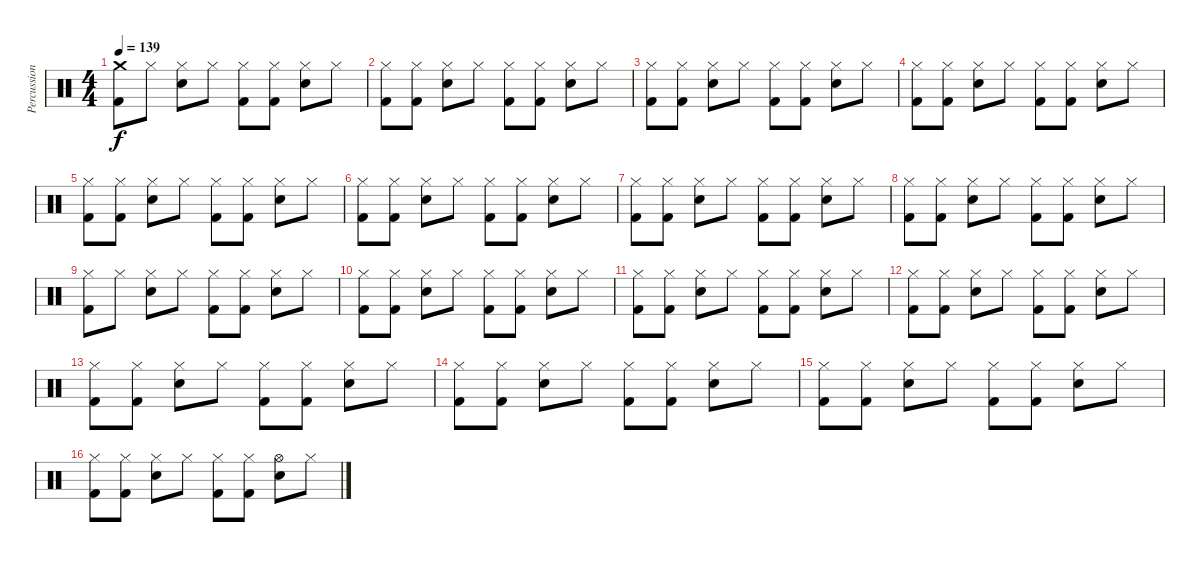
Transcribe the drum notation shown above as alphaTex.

\track ("Percussion" "Percussion") {instrument percussion}
\staff {score}
\articulation defaults
\ts (4 4)
\tempo 139
\clef neutral
\ks c
("Crash medium (hit)" "Kick (hit) 2").8{dy f} "Hi-Hat (closed)".8 ("Hi-Hat (closed)" "Metronome (bell)").8 "Hi-Hat (closed)".8 ("Hi-Hat (closed)" "Kick (hit) 2").8 ("Hi-Hat (closed)" "Kick (hit) 2").8 ("Hi-Hat (closed)" "Metronome (bell)").8 "Hi-Hat (closed)".8 |
("Hi-Hat (closed)" "Kick (hit) 2").8 ("Hi-Hat (closed)" "Kick (hit) 2").8 ("Hi-Hat (closed)" "Metronome (bell)").8 "Hi-Hat (closed)".8 ("Hi-Hat (closed)" "Kick (hit) 2").8 ("Hi-Hat (closed)" "Kick (hit) 2").8 ("Hi-Hat (closed)" "Metronome (bell)").8 "Hi-Hat (closed)".8 |
("Hi-Hat (closed)" "Kick (hit) 2").8 ("Hi-Hat (closed)" "Kick (hit) 2").8 ("Hi-Hat (closed)" "Metronome (bell)").8 "Hi-Hat (closed)".8 ("Hi-Hat (closed)" "Kick (hit) 2").8 ("Hi-Hat (closed)" "Kick (hit) 2").8 ("Hi-Hat (closed)" "Metronome (bell)").8 "Hi-Hat (closed)".8 |
("Hi-Hat (closed)" "Kick (hit) 2").8 ("Hi-Hat (closed)" "Kick (hit) 2").8 ("Hi-Hat (closed)" "Metronome (bell)").8 "Hi-Hat (closed)".8 ("Hi-Hat (closed)" "Kick (hit) 2").8 ("Hi-Hat (closed)" "Kick (hit) 2").8 ("Hi-Hat (closed)" "Metronome (bell)").8 "Hi-Hat (closed)".8 |
("Hi-Hat (closed)" "Kick (hit) 2").8 ("Hi-Hat (closed)" "Kick (hit) 2").8 ("Hi-Hat (closed)" "Metronome (bell)").8 "Hi-Hat (closed)".8 ("Hi-Hat (closed)" "Kick (hit) 2").8 ("Hi-Hat (closed)" "Kick (hit) 2").8 ("Hi-Hat (closed)" "Metronome (bell)").8 "Hi-Hat (closed)".8 |
("Hi-Hat (closed)" "Kick (hit) 2").8 ("Hi-Hat (closed)" "Kick (hit) 2").8 ("Hi-Hat (closed)" "Metronome (bell)").8 "Hi-Hat (closed)".8 ("Hi-Hat (closed)" "Kick (hit) 2").8 ("Hi-Hat (closed)" "Kick (hit) 2").8 ("Hi-Hat (closed)" "Metronome (bell)").8 "Hi-Hat (closed)".8 |
("Hi-Hat (closed)" "Kick (hit) 2").8 ("Hi-Hat (closed)" "Kick (hit) 2").8 ("Hi-Hat (closed)" "Metronome (bell)").8 "Hi-Hat (closed)".8 ("Hi-Hat (closed)" "Kick (hit) 2").8 ("Hi-Hat (closed)" "Kick (hit) 2").8 ("Hi-Hat (closed)" "Metronome (bell)").8 "Hi-Hat (closed)".8 |
("Hi-Hat (closed)" "Kick (hit) 2").8 ("Hi-Hat (closed)" "Kick (hit) 2").8 ("Hi-Hat (closed)" "Metronome (bell)").8 "Hi-Hat (closed)".8 ("Hi-Hat (closed)" "Kick (hit) 2").8 ("Hi-Hat (closed)" "Kick (hit) 2").8 ("Hi-Hat (closed)" "Metronome (bell)").8 "Hi-Hat (closed)".8 |
("Hi-Hat (closed)" "Kick (hit) 2").8 "Hi-Hat (closed)".8 ("Hi-Hat (closed)" "Metronome (bell)").8 "Hi-Hat (closed)".8 ("Hi-Hat (closed)" "Kick (hit) 2").8 ("Hi-Hat (closed)" "Kick (hit) 2").8 ("Hi-Hat (closed)" "Metronome (bell)").8 "Hi-Hat (closed)".8 |
("Hi-Hat (closed)" "Kick (hit) 2").8 ("Hi-Hat (closed)" "Kick (hit) 2").8 ("Hi-Hat (closed)" "Metronome (bell)").8 "Hi-Hat (closed)".8 ("Hi-Hat (closed)" "Kick (hit) 2").8 ("Hi-Hat (closed)" "Kick (hit) 2").8 ("Hi-Hat (closed)" "Metronome (bell)").8 "Hi-Hat (closed)".8 |
("Hi-Hat (closed)" "Kick (hit) 2").8 ("Hi-Hat (closed)" "Kick (hit) 2").8 ("Hi-Hat (closed)" "Metronome (bell)").8 "Hi-Hat (closed)".8 ("Hi-Hat (closed)" "Kick (hit) 2").8 ("Hi-Hat (closed)" "Kick (hit) 2").8 ("Hi-Hat (closed)" "Metronome (bell)").8 "Hi-Hat (closed)".8 |
("Hi-Hat (closed)" "Kick (hit) 2").8 ("Hi-Hat (closed)" "Kick (hit) 2").8 ("Hi-Hat (closed)" "Metronome (bell)").8 "Hi-Hat (closed)".8 ("Hi-Hat (closed)" "Kick (hit) 2").8 ("Hi-Hat (closed)" "Kick (hit) 2").8 ("Hi-Hat (closed)" "Metronome (bell)").8 "Hi-Hat (closed)".8 |
("Hi-Hat (closed)" "Kick (hit) 2").8 ("Hi-Hat (closed)" "Kick (hit) 2").8 ("Hi-Hat (closed)" "Metronome (bell)").8 "Hi-Hat (closed)".8 ("Hi-Hat (closed)" "Kick (hit) 2").8 ("Hi-Hat (closed)" "Kick (hit) 2").8 ("Hi-Hat (closed)" "Metronome (bell)").8 "Hi-Hat (closed)".8 |
("Hi-Hat (closed)" "Kick (hit) 2").8 ("Hi-Hat (closed)" "Kick (hit) 2").8 ("Hi-Hat (closed)" "Metronome (bell)").8 "Hi-Hat (closed)".8 ("Hi-Hat (closed)" "Kick (hit) 2").8 ("Hi-Hat (closed)" "Kick (hit) 2").8 ("Hi-Hat (closed)" "Metronome (bell)").8 "Hi-Hat (closed)".8 |
("Hi-Hat (closed)" "Kick (hit) 2").8 ("Hi-Hat (closed)" "Kick (hit) 2").8 ("Hi-Hat (closed)" "Metronome (bell)").8 "Hi-Hat (closed)".8 ("Hi-Hat (closed)" "Kick (hit) 2").8 ("Hi-Hat (closed)" "Kick (hit) 2").8 ("Hi-Hat (closed)" "Metronome (bell)").8 "Hi-Hat (closed)".8 |
("Hi-Hat (closed)" "Kick (hit) 2").8 ("Hi-Hat (closed)" "Kick (hit) 2").8 ("Hi-Hat (closed)" "Metronome (bell)").8 "Hi-Hat (closed)".8 ("Hi-Hat (closed)" "Kick (hit) 2").8 ("Hi-Hat (closed)" "Kick (hit) 2").8 ("Hi-Hat (open)" "Metronome (bell)").8 "Hi-Hat (closed)".8
